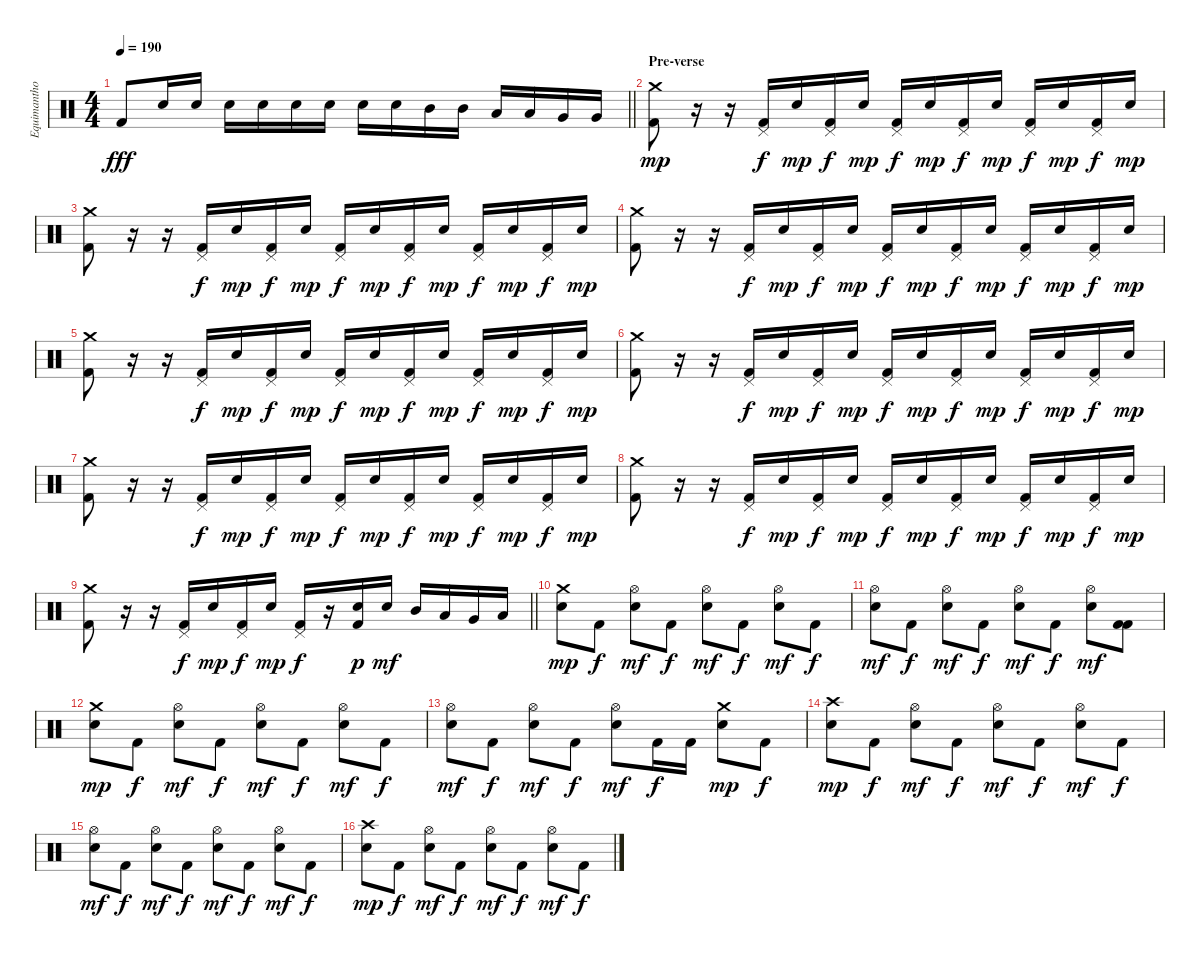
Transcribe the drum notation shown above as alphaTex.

\track ("Equimanthorn" "Equimantho") {instrument percussion}
\staff {score}
\articulation defaults
\ts (4 4)
\tempo 190
\clef neutral
\barLineRight lightlight
\ks c "Kick (hit) 2".8{dy fff} "Electric Snare (hit)".16 "Electric Snare (hit)".16 "Electric Snare (hit)".16 "Electric Snare (hit)".16 "Electric Snare (hit)".16 "Electric Snare (hit)".16 "Electric Snare (hit)".16 "Electric Snare (hit)".16 "Mid Tom (hit)".16 "Mid Tom (hit)".16 "Low Tom (hit)".16 "Low Tom (hit)".16 "Very Low Tom (hit)".16 "Very Low Tom (hit)".16
|
\section ("" "Pre-verse")
("Crash medium (hit)" "Kick (hit) 2").8{dy mp} r.16 r.16 ("Pedal Hi-Hat (hit)" "Kick (hit) 2").16{dy f} "Electric Snare (hit)".16{dy mp} ("Pedal Hi-Hat (hit)" "Kick (hit) 2").16{dy f} "Electric Snare (hit)".16{dy mp} ("Pedal Hi-Hat (hit)" "Kick (hit) 2").16{dy f} "Electric Snare (hit)".16{dy mp} ("Pedal Hi-Hat (hit)" "Kick (hit) 2").16{dy f} "Electric Snare (hit)".16{dy mp} ("Pedal Hi-Hat (hit)" "Kick (hit) 2").16{dy f} "Electric Snare (hit)".16{dy mp} ("Pedal Hi-Hat (hit)" "Kick (hit) 2").16{dy f} "Electric Snare (hit)".16{dy mp} |
("Crash medium (hit)" "Kick (hit) 2").8 r.16 r.16 ("Pedal Hi-Hat (hit)" "Kick (hit) 2").16{dy f} "Electric Snare (hit)".16{dy mp} ("Pedal Hi-Hat (hit)" "Kick (hit) 2").16{dy f} "Electric Snare (hit)".16{dy mp} ("Pedal Hi-Hat (hit)" "Kick (hit) 2").16{dy f} "Electric Snare (hit)".16{dy mp} ("Pedal Hi-Hat (hit)" "Kick (hit) 2").16{dy f} "Electric Snare (hit)".16{dy mp} ("Pedal Hi-Hat (hit)" "Kick (hit) 2").16{dy f} "Electric Snare (hit)".16{dy mp} ("Pedal Hi-Hat (hit)" "Kick (hit) 2").16{dy f} "Electric Snare (hit)".16{dy mp} |
("Crash medium (hit)" "Kick (hit) 2").8 r.16 r.16 ("Pedal Hi-Hat (hit)" "Kick (hit) 2").16{dy f} "Electric Snare (hit)".16{dy mp} ("Pedal Hi-Hat (hit)" "Kick (hit) 2").16{dy f} "Electric Snare (hit)".16{dy mp} ("Pedal Hi-Hat (hit)" "Kick (hit) 2").16{dy f} "Electric Snare (hit)".16{dy mp} ("Pedal Hi-Hat (hit)" "Kick (hit) 2").16{dy f} "Electric Snare (hit)".16{dy mp} ("Pedal Hi-Hat (hit)" "Kick (hit) 2").16{dy f} "Electric Snare (hit)".16{dy mp} ("Pedal Hi-Hat (hit)" "Kick (hit) 2").16{dy f} "Electric Snare (hit)".16{dy mp} |
("Crash medium (hit)" "Kick (hit) 2").8 r.16 r.16 ("Pedal Hi-Hat (hit)" "Kick (hit) 2").16{dy f} "Electric Snare (hit)".16{dy mp} ("Pedal Hi-Hat (hit)" "Kick (hit) 2").16{dy f} "Electric Snare (hit)".16{dy mp} ("Pedal Hi-Hat (hit)" "Kick (hit) 2").16{dy f} "Electric Snare (hit)".16{dy mp} ("Pedal Hi-Hat (hit)" "Kick (hit) 2").16{dy f} "Electric Snare (hit)".16{dy mp} ("Pedal Hi-Hat (hit)" "Kick (hit) 2").16{dy f} "Electric Snare (hit)".16{dy mp} ("Pedal Hi-Hat (hit)" "Kick (hit) 2").16{dy f} "Electric Snare (hit)".16{dy mp} |
("Crash medium (hit)" "Kick (hit) 2").8 r.16 r.16 ("Pedal Hi-Hat (hit)" "Kick (hit) 2").16{dy f} "Electric Snare (hit)".16{dy mp} ("Pedal Hi-Hat (hit)" "Kick (hit) 2").16{dy f} "Electric Snare (hit)".16{dy mp} ("Pedal Hi-Hat (hit)" "Kick (hit) 2").16{dy f} "Electric Snare (hit)".16{dy mp} ("Pedal Hi-Hat (hit)" "Kick (hit) 2").16{dy f} "Electric Snare (hit)".16{dy mp} ("Pedal Hi-Hat (hit)" "Kick (hit) 2").16{dy f} "Electric Snare (hit)".16{dy mp} ("Pedal Hi-Hat (hit)" "Kick (hit) 2").16{dy f} "Electric Snare (hit)".16{dy mp} |
("Crash medium (hit)" "Kick (hit) 2").8 r.16 r.16 ("Pedal Hi-Hat (hit)" "Kick (hit) 2").16{dy f} "Electric Snare (hit)".16{dy mp} ("Pedal Hi-Hat (hit)" "Kick (hit) 2").16{dy f} "Electric Snare (hit)".16{dy mp} ("Pedal Hi-Hat (hit)" "Kick (hit) 2").16{dy f} "Electric Snare (hit)".16{dy mp} ("Pedal Hi-Hat (hit)" "Kick (hit) 2").16{dy f} "Electric Snare (hit)".16{dy mp} ("Pedal Hi-Hat (hit)" "Kick (hit) 2").16{dy f} "Electric Snare (hit)".16{dy mp} ("Pedal Hi-Hat (hit)" "Kick (hit) 2").16{dy f} "Electric Snare (hit)".16{dy mp} |
("Crash medium (hit)" "Kick (hit) 2").8 r.16 r.16 ("Pedal Hi-Hat (hit)" "Kick (hit) 2").16{dy f} "Electric Snare (hit)".16{dy mp} ("Pedal Hi-Hat (hit)" "Kick (hit) 2").16{dy f} "Electric Snare (hit)".16{dy mp} ("Pedal Hi-Hat (hit)" "Kick (hit) 2").16{dy f} "Electric Snare (hit)".16{dy mp} ("Pedal Hi-Hat (hit)" "Kick (hit) 2").16{dy f} "Electric Snare (hit)".16{dy mp} ("Pedal Hi-Hat (hit)" "Kick (hit) 2").16{dy f} "Electric Snare (hit)".16{dy mp} ("Pedal Hi-Hat (hit)" "Kick (hit) 2").16{dy f} "Electric Snare (hit)".16{dy mp} |
\barLineRight lightlight
("Crash medium (hit)" "Kick (hit) 2").8 r.16 r.16 ("Pedal Hi-Hat (hit)" "Kick (hit) 2").16{dy f} "Electric Snare (hit)".16{dy mp} ("Pedal Hi-Hat (hit)" "Kick (hit) 2").16{dy f} "Electric Snare (hit)".16{dy mp} ("Pedal Hi-Hat (hit)" "Kick (hit) 2").16{dy f} r.16 ("Electric Snare (hit)" "Kick (hit) 2").16{dy p} "Electric Snare (hit)".16{dy mf} "Mid Tom (hit)".16 "Low Tom (hit)".16 "Very Low Tom (hit)".16 "Low Floor Tom (hit)".16 |
\section ("" "")
("Crash medium (hit)" "Electric Snare (hit)").8{dy mp} "Kick (hit) 2".8{dy f} ("Hi-Hat (open)" "Electric Snare (hit)").8{dy mf} "Kick (hit) 2".8{dy f} ("Hi-Hat (open)" "Electric Snare (hit)").8{dy mf} "Kick (hit) 2".8{dy f} ("Hi-Hat (open)" "Electric Snare (hit)").8{dy mf} "Kick (hit) 2".8{dy f} |
("Hi-Hat (open)" "Electric Snare (hit)").8{dy mf} "Kick (hit) 2".8{dy f} ("Hi-Hat (open)" "Electric Snare (hit)").8{dy mf} "Kick (hit) 2".8{dy f} ("Hi-Hat (open)" "Electric Snare (hit)").8{dy mf} "Kick (hit) 2".8{dy f} ("Hi-Hat (open)" "Electric Snare (hit)").8{dy mf} ("Kick (hit) 2" "Kick (hit) 2").8 |
("Crash medium (hit)" "Electric Snare (hit)").8{dy mp} "Kick (hit) 2".8{dy f} ("Hi-Hat (open)" "Electric Snare (hit)").8{dy mf} "Kick (hit) 2".8{dy f} ("Hi-Hat (open)" "Electric Snare (hit)").8{dy mf} "Kick (hit) 2".8{dy f} ("Hi-Hat (open)" "Electric Snare (hit)").8{dy mf} "Kick (hit) 2".8{dy f} |
("Hi-Hat (open)" "Electric Snare (hit)").8{dy mf} "Kick (hit) 2".8{dy f} ("Hi-Hat (open)" "Electric Snare (hit)").8{dy mf} "Kick (hit) 2".8{dy f} ("Hi-Hat (open)" "Electric Snare (hit)").8{dy mf} "Kick (hit) 2".16{dy f} "Kick (hit) 2".16 ("Crash medium (hit)" "Electric Snare (hit)").8{dy mp} "Kick (hit) 2".8{dy f} |
("Crash high (hit)" "Electric Snare (hit)").8{dy mp} "Kick (hit) 2".8{dy f} ("Hi-Hat (open)" "Electric Snare (hit)").8{dy mf} "Kick (hit) 2".8{dy f} ("Hi-Hat (open)" "Electric Snare (hit)").8{dy mf} "Kick (hit) 2".8{dy f} ("Hi-Hat (open)" "Electric Snare (hit)").8{dy mf} "Kick (hit) 2".8{dy f} |
("Hi-Hat (open)" "Electric Snare (hit)").8{dy mf} "Kick (hit) 2".8{dy f} ("Hi-Hat (open)" "Electric Snare (hit)").8{dy mf} "Kick (hit) 2".8{dy f} ("Hi-Hat (open)" "Electric Snare (hit)").8{dy mf} "Kick (hit) 2".8{dy f} ("Hi-Hat (open)" "Electric Snare (hit)").8{dy mf} "Kick (hit) 2".8{dy f} |
("Crash high (hit)" "Electric Snare (hit)").8{dy mp} "Kick (hit) 2".8{dy f} ("Hi-Hat (open)" "Electric Snare (hit)").8{dy mf} "Kick (hit) 2".8{dy f} ("Hi-Hat (open)" "Electric Snare (hit)").8{dy mf} "Kick (hit) 2".8{dy f} ("Hi-Hat (open)" "Electric Snare (hit)").8{dy mf} "Kick (hit) 2".8{dy f}
